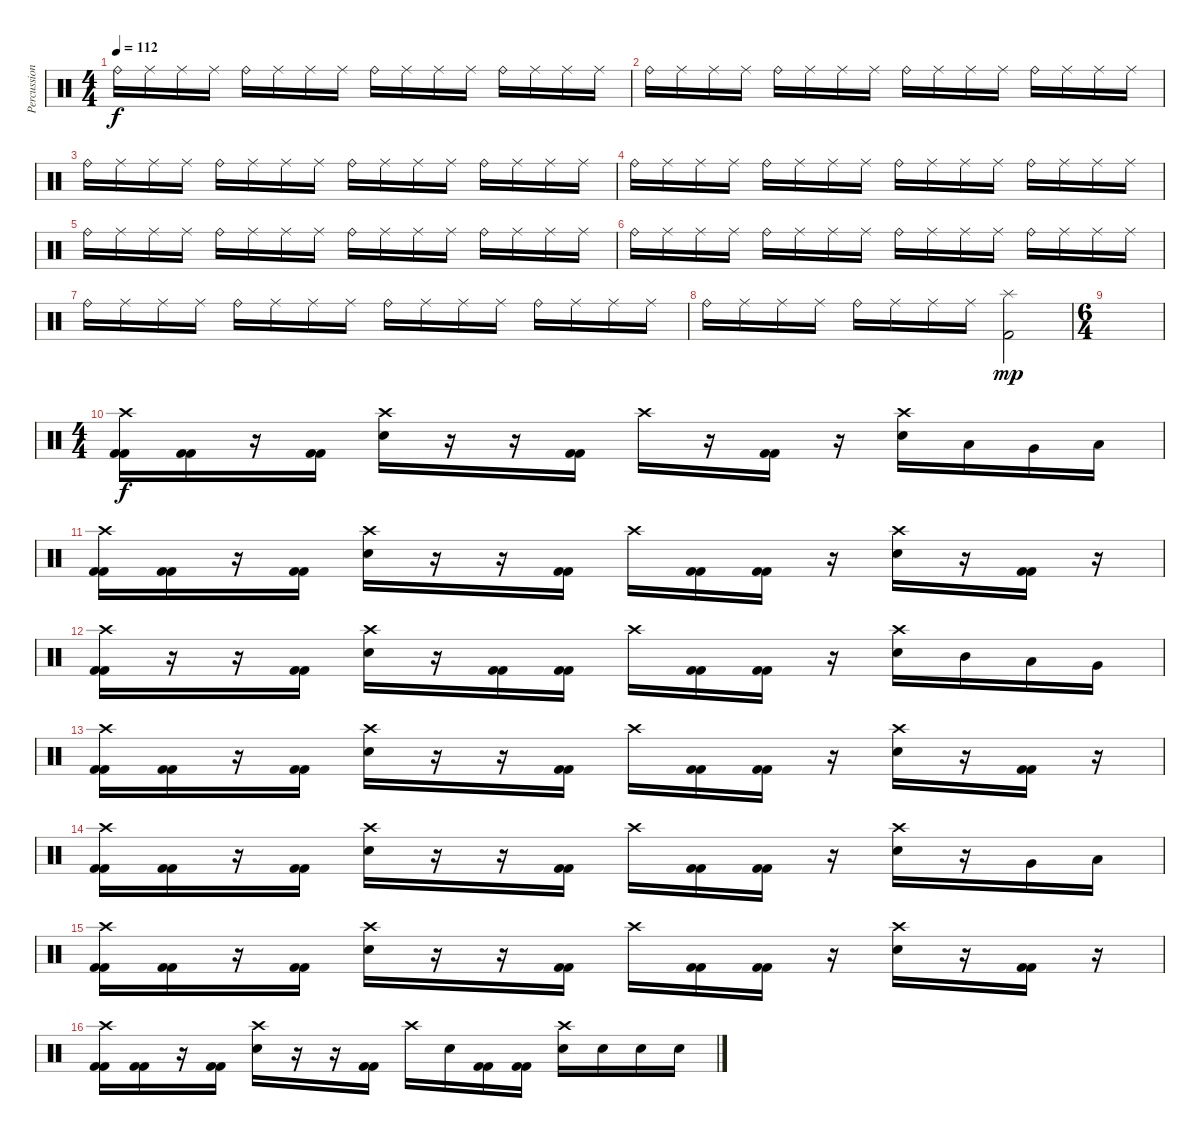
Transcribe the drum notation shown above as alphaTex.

\track ("Percussion" "Percussion") {instrument percussion}
\staff {score}
\articulation defaults
\ts (4 4)
\tempo 112
\clef neutral
\ks c "Ride (bell)".16{dy f} "Ride (middle)".16 "Ride (middle)".16 "Ride (middle)".16 "Ride (bell)".16 "Ride (middle)".16 "Ride (middle)".16 "Ride (middle)".16 "Ride (bell)".16 "Ride (middle)".16 "Ride (middle)".16 "Ride (middle)".16 "Ride (bell)".16 "Ride (middle)".16 "Ride (middle)".16 "Ride (middle)".16
|
"Ride (bell)".16 "Ride (middle)".16 "Ride (middle)".16 "Ride (middle)".16 "Ride (bell)".16 "Ride (middle)".16 "Ride (middle)".16 "Ride (middle)".16 "Ride (bell)".16 "Ride (middle)".16 "Ride (middle)".16 "Ride (middle)".16 "Ride (bell)".16 "Ride (middle)".16 "Ride (middle)".16 "Ride (middle)".16 |
"Ride (bell)".16 "Ride (middle)".16 "Ride (middle)".16 "Ride (middle)".16 "Ride (bell)".16 "Ride (middle)".16 "Ride (middle)".16 "Ride (middle)".16 "Ride (bell)".16 "Ride (middle)".16 "Ride (middle)".16 "Ride (middle)".16 "Ride (bell)".16 "Ride (middle)".16 "Ride (middle)".16 "Ride (middle)".16 |
"Ride (bell)".16 "Ride (middle)".16 "Ride (middle)".16 "Ride (middle)".16 "Ride (bell)".16 "Ride (middle)".16 "Ride (middle)".16 "Ride (middle)".16 "Ride (bell)".16 "Ride (middle)".16 "Ride (middle)".16 "Ride (middle)".16 "Ride (bell)".16 "Ride (middle)".16 "Ride (middle)".16 "Ride (middle)".16 |
"Ride (bell)".16 "Ride (middle)".16 "Ride (middle)".16 "Ride (middle)".16 "Ride (bell)".16 "Ride (middle)".16 "Ride (middle)".16 "Ride (middle)".16 "Ride (bell)".16 "Ride (middle)".16 "Ride (middle)".16 "Ride (middle)".16 "Ride (bell)".16 "Ride (middle)".16 "Ride (middle)".16 "Ride (middle)".16 |
"Ride (bell)".16 "Ride (middle)".16 "Ride (middle)".16 "Ride (middle)".16 "Ride (bell)".16 "Ride (middle)".16 "Ride (middle)".16 "Ride (middle)".16 "Ride (bell)".16 "Ride (middle)".16 "Ride (middle)".16 "Ride (middle)".16 "Ride (bell)".16 "Ride (middle)".16 "Ride (middle)".16 "Ride (middle)".16 |
"Ride (bell)".16 "Ride (middle)".16 "Ride (middle)".16 "Ride (middle)".16 "Ride (bell)".16 "Ride (middle)".16 "Ride (middle)".16 "Ride (middle)".16 "Ride (bell)".16 "Ride (middle)".16 "Ride (middle)".16 "Ride (middle)".16 "Ride (bell)".16 "Ride (middle)".16 "Ride (middle)".16 "Ride (middle)".16 |
"Ride (bell)".16 "Ride (middle)".16 "Ride (middle)".16 "Ride (middle)".16 "Ride (bell)".16 "Ride (middle)".16 "Ride (middle)".16 "Ride (middle)".16 ("Splash (hit)" "Kick (hit) 2").2{dy mp} |
\ts (6 4)
|
\ts (4 4)
("Crash high (hit)" "Kick (hit) 2" "Kick (hit) 2").16{dy f} ("Kick (hit) 2" "Kick (hit) 2").16 r.16 ("Kick (hit) 2" "Kick (hit) 2").16 ("Crash high (hit)" "Electric Snare (hit)").16 r.16 r.16 ("Kick (hit) 2" "Kick (hit) 2").16 "Crash high (hit)".16 r.16 ("Kick (hit) 2" "Kick (hit) 2").16 r.16 ("Crash high (hit)" "Electric Snare (hit)").16 "Low Tom (hit)".16 "Very Low Tom (hit)".16 "Low Floor Tom (hit)".16 |
("Crash high (hit)" "Kick (hit) 2" "Kick (hit) 2").16 ("Kick (hit) 2" "Kick (hit) 2").16 r.16 ("Kick (hit) 2" "Kick (hit) 2").16 ("Crash high (hit)" "Electric Snare (hit)").16 r.16 r.16 ("Kick (hit) 2" "Kick (hit) 2").16 "Crash high (hit)".16 ("Kick (hit) 2" "Kick (hit) 2").16 ("Kick (hit) 2" "Kick (hit) 2").16 r.16 ("Crash high (hit)" "Electric Snare (hit)").16 r.16 ("Kick (hit) 2" "Kick (hit) 2").16 r.16 |
("Crash high (hit)" "Kick (hit) 2" "Kick (hit) 2").16 r.16 r.16 ("Kick (hit) 2" "Kick (hit) 2").16 ("Crash high (hit)" "Electric Snare (hit)").16 r.16 ("Kick (hit) 2" "Kick (hit) 2").16 ("Kick (hit) 2" "Kick (hit) 2").16 "Crash high (hit)".16 ("Kick (hit) 2" "Kick (hit) 2").16 ("Kick (hit) 2" "Kick (hit) 2").16 r.16 ("Crash high (hit)" "Electric Snare (hit)").16 "Mid Tom (hit)".16 "Low Tom (hit)".16 "Very Low Tom (hit)".16 |
("Crash high (hit)" "Kick (hit) 2" "Kick (hit) 2").16 ("Kick (hit) 2" "Kick (hit) 2").16 r.16 ("Kick (hit) 2" "Kick (hit) 2").16 ("Crash high (hit)" "Electric Snare (hit)").16 r.16 r.16 ("Kick (hit) 2" "Kick (hit) 2").16 "Crash high (hit)".16 ("Kick (hit) 2" "Kick (hit) 2").16 ("Kick (hit) 2" "Kick (hit) 2").16 r.16 ("Crash high (hit)" "Electric Snare (hit)").16 r.16 ("Kick (hit) 2" "Kick (hit) 2").16 r.16 |
("Crash high (hit)" "Kick (hit) 2" "Kick (hit) 2").16 ("Kick (hit) 2" "Kick (hit) 2").16 r.16 ("Kick (hit) 2" "Kick (hit) 2").16 ("Crash high (hit)" "Electric Snare (hit)").16 r.16 r.16 ("Kick (hit) 2" "Kick (hit) 2").16 "Crash high (hit)".16 ("Kick (hit) 2" "Kick (hit) 2").16 ("Kick (hit) 2" "Kick (hit) 2").16 r.16 ("Crash high (hit)" "Electric Snare (hit)").16 r.16 "Very Low Tom (hit)".16 "Low Floor Tom (hit)".16 |
("Crash high (hit)" "Kick (hit) 2" "Kick (hit) 2").16 ("Kick (hit) 2" "Kick (hit) 2").16 r.16 ("Kick (hit) 2" "Kick (hit) 2").16 ("Crash high (hit)" "Electric Snare (hit)").16 r.16 r.16 ("Kick (hit) 2" "Kick (hit) 2").16 "Crash high (hit)".16 ("Kick (hit) 2" "Kick (hit) 2").16 ("Kick (hit) 2" "Kick (hit) 2").16 r.16 ("Crash high (hit)" "Electric Snare (hit)").16 r.16 ("Kick (hit) 2" "Kick (hit) 2").16 r.16 |
("Crash high (hit)" "Kick (hit) 2" "Kick (hit) 2").16 ("Kick (hit) 2" "Kick (hit) 2").16 r.16 ("Kick (hit) 2" "Kick (hit) 2").16 ("Crash high (hit)" "Electric Snare (hit)").16 r.16 r.16 ("Kick (hit) 2" "Kick (hit) 2").16 "Crash high (hit)".16 "Electric Snare (hit)".16 ("Kick (hit) 2" "Kick (hit) 2").16 ("Kick (hit) 2" "Kick (hit) 2").16 ("Crash high (hit)" "Electric Snare (hit)").16 "Electric Snare (hit)".16 "Electric Snare (hit)".16 "Electric Snare (hit)".16
